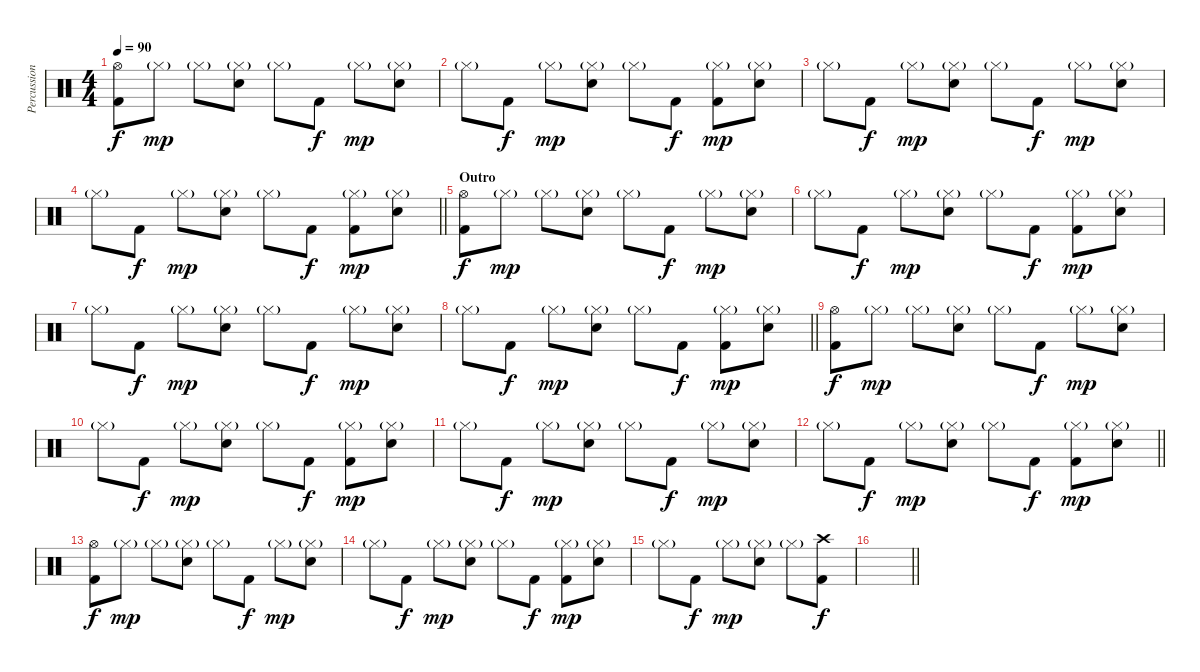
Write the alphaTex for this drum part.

\track ("Percussion" "Percussion") {instrument percussion}
\staff {score}
\articulation defaults
\ts (4 4)
\tempo 90
\clef neutral
\ks c
("Hi-Hat (open)" "Kick (hit) 2").8{dy f} "Hi-Hat (closed)"{g}.8{dy mp} "Hi-Hat (closed)"{g}.8 ("Hi-Hat (closed)"{g} "Electric Snare (hit)").8 "Hi-Hat (closed)"{g}.8 "Kick (hit) 2".8{dy f} "Hi-Hat (closed)"{g}.8{dy mp} ("Hi-Hat (closed)"{g} "Electric Snare (hit)").8 |
"Hi-Hat (closed)"{g}.8 "Kick (hit) 2".8{dy f} "Hi-Hat (closed)"{g}.8{dy mp} ("Hi-Hat (closed)"{g} "Electric Snare (hit)").8 "Hi-Hat (closed)"{g}.8 "Kick (hit) 2".8{dy f} ("Hi-Hat (closed)"{g} "Kick (hit) 2").8{dy mp} ("Hi-Hat (closed)"{g} "Electric Snare (hit)").8 |
"Hi-Hat (closed)"{g}.8 "Kick (hit) 2".8{dy f} "Hi-Hat (closed)"{g}.8{dy mp} ("Hi-Hat (closed)"{g} "Electric Snare (hit)").8 "Hi-Hat (closed)"{g}.8 "Kick (hit) 2".8{dy f} "Hi-Hat (closed)"{g}.8{dy mp} ("Hi-Hat (closed)"{g} "Electric Snare (hit)").8 |
\barLineRight lightlight "Hi-Hat (closed)"{g}.8 "Kick (hit) 2".8{dy f} "Hi-Hat (closed)"{g}.8{dy mp}
("Hi-Hat (closed)"{g} "Electric Snare (hit)").8 "Hi-Hat (closed)"{g}.8 "Kick (hit) 2".8{dy f} ("Hi-Hat (closed)"{g} "Kick (hit) 2").8{dy mp} ("Hi-Hat (closed)"{g} "Electric Snare (hit)").8 |
\section ("" "Outro")
("Hi-Hat (open)" "Kick (hit) 2").8{dy f} "Hi-Hat (closed)"{g}.8{dy mp} "Hi-Hat (closed)"{g}.8 ("Hi-Hat (closed)"{g} "Electric Snare (hit)").8 "Hi-Hat (closed)"{g}.8 "Kick (hit) 2".8{dy f} "Hi-Hat (closed)"{g}.8{dy mp} ("Hi-Hat (closed)"{g} "Electric Snare (hit)").8 |
"Hi-Hat (closed)"{g}.8 "Kick (hit) 2".8{dy f} "Hi-Hat (closed)"{g}.8{dy mp} ("Hi-Hat (closed)"{g} "Electric Snare (hit)").8 "Hi-Hat (closed)"{g}.8 "Kick (hit) 2".8{dy f} ("Hi-Hat (closed)"{g} "Kick (hit) 2").8{dy mp} ("Hi-Hat (closed)"{g} "Electric Snare (hit)").8 |
"Hi-Hat (closed)"{g}.8 "Kick (hit) 2".8{dy f} "Hi-Hat (closed)"{g}.8{dy mp} ("Hi-Hat (closed)"{g} "Electric Snare (hit)").8 "Hi-Hat (closed)"{g}.8 "Kick (hit) 2".8{dy f} "Hi-Hat (closed)"{g}.8{dy mp} ("Hi-Hat (closed)"{g} "Electric Snare (hit)").8 |
\barLineRight lightlight "Hi-Hat (closed)"{g}.8 "Kick (hit) 2".8{dy f} "Hi-Hat (closed)"{g}.8{dy mp}
("Hi-Hat (closed)"{g} "Electric Snare (hit)").8 "Hi-Hat (closed)"{g}.8 "Kick (hit) 2".8{dy f} ("Hi-Hat (closed)"{g} "Kick (hit) 2").8{dy mp} ("Hi-Hat (closed)"{g} "Electric Snare (hit)").8 |
("Hi-Hat (open)" "Kick (hit) 2").8{dy f} "Hi-Hat (closed)"{g}.8{dy mp} "Hi-Hat (closed)"{g}.8 ("Hi-Hat (closed)"{g} "Electric Snare (hit)").8 "Hi-Hat (closed)"{g}.8 "Kick (hit) 2".8{dy f} "Hi-Hat (closed)"{g}.8{dy mp} ("Hi-Hat (closed)"{g} "Electric Snare (hit)").8 |
"Hi-Hat (closed)"{g}.8 "Kick (hit) 2".8{dy f} "Hi-Hat (closed)"{g}.8{dy mp} ("Hi-Hat (closed)"{g} "Electric Snare (hit)").8 "Hi-Hat (closed)"{g}.8 "Kick (hit) 2".8{dy f} ("Hi-Hat (closed)"{g} "Kick (hit) 2").8{dy mp} ("Hi-Hat (closed)"{g} "Electric Snare (hit)").8 |
"Hi-Hat (closed)"{g}.8 "Kick (hit) 2".8{dy f} "Hi-Hat (closed)"{g}.8{dy mp} ("Hi-Hat (closed)"{g} "Electric Snare (hit)").8 "Hi-Hat (closed)"{g}.8 "Kick (hit) 2".8{dy f} "Hi-Hat (closed)"{g}.8{dy mp} ("Hi-Hat (closed)"{g} "Electric Snare (hit)").8 |
\barLineRight lightlight "Hi-Hat (closed)"{g}.8 "Kick (hit) 2".8{dy f} "Hi-Hat (closed)"{g}.8{dy mp}
("Hi-Hat (closed)"{g} "Electric Snare (hit)").8 "Hi-Hat (closed)"{g}.8 "Kick (hit) 2".8{dy f} ("Hi-Hat (closed)"{g} "Kick (hit) 2").8{dy mp} ("Hi-Hat (closed)"{g} "Electric Snare (hit)").8 |
("Hi-Hat (open)" "Kick (hit) 2").8{dy f} "Hi-Hat (closed)"{g}.8{dy mp} "Hi-Hat (closed)"{g}.8 ("Hi-Hat (closed)"{g} "Electric Snare (hit)").8 "Hi-Hat (closed)"{g}.8 "Kick (hit) 2".8{dy f} "Hi-Hat (closed)"{g}.8{dy mp} ("Hi-Hat (closed)"{g} "Electric Snare (hit)").8 |
"Hi-Hat (closed)"{g}.8 "Kick (hit) 2".8{dy f} "Hi-Hat (closed)"{g}.8{dy mp} ("Hi-Hat (closed)"{g} "Electric Snare (hit)").8 "Hi-Hat (closed)"{g}.8 "Kick (hit) 2".8{dy f} ("Hi-Hat (closed)"{g} "Kick (hit) 2").8{dy mp} ("Hi-Hat (closed)"{g} "Electric Snare (hit)").8 |
"Hi-Hat (closed)"{g}.8 "Kick (hit) 2".8{dy f} "Hi-Hat (closed)"{g}.8{dy mp} ("Hi-Hat (closed)"{g} "Electric Snare (hit)").8 "Hi-Hat (closed)"{g}.8 ("Crash high (hit)" "Kick (hit) 2").8{dy f} |
\barLineRight lightlight
